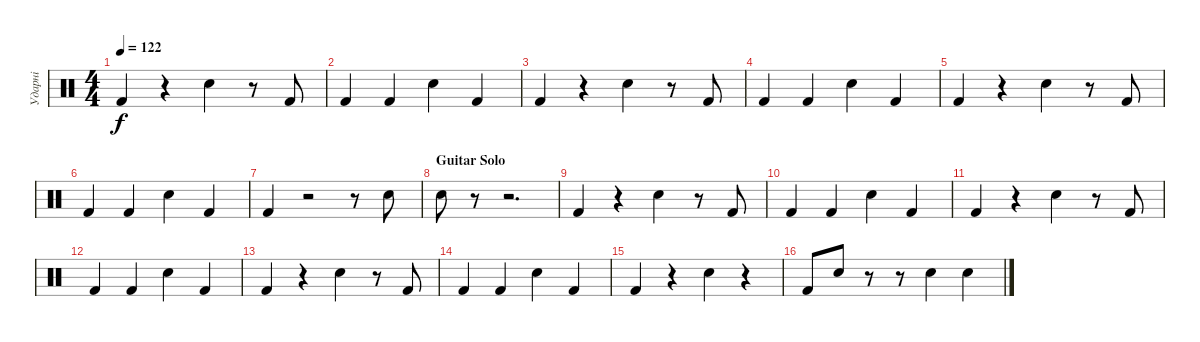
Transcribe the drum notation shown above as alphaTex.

\track ("Ударні" "Ударні") {instrument percussion}
\staff {score}
\articulation defaults
\ts (4 4)
\tempo 122
\clef neutral
\ks c "Kick (hit) 2".4{dy f}
r.4 "Snare (hit) 2".4 r.8 "Kick (hit) 2".8 |
"Kick (hit) 2".4 "Kick (hit) 2".4 "Snare (hit) 2".4 "Kick (hit) 2".4 |
"Kick (hit) 2".4 r.4 "Snare (hit) 2".4 r.8 "Kick (hit) 2".8 |
"Kick (hit) 2".4 "Kick (hit) 2".4 "Snare (hit) 2".4 "Kick (hit) 2".4 |
"Kick (hit) 2".4 r.4 "Snare (hit) 2".4 r.8 "Kick (hit) 2".8 |
"Kick (hit) 2".4 "Kick (hit) 2".4 "Snare (hit) 2".4 "Kick (hit) 2".4 |
"Kick (hit) 2".4 r.2 r.8 "Snare (hit) 2".8 |
\section ("" "Guitar Solo")
"Snare (hit) 2".8 r.8 r.2{d} |
"Kick (hit) 2".4 r.4 "Snare (hit) 2".4 r.8 "Kick (hit) 2".8 |
"Kick (hit) 2".4 "Kick (hit) 2".4 "Snare (hit) 2".4 "Kick (hit) 2".4 |
"Kick (hit) 2".4 r.4 "Snare (hit) 2".4 r.8 "Kick (hit) 2".8 |
"Kick (hit) 2".4 "Kick (hit) 2".4 "Snare (hit) 2".4 "Kick (hit) 2".4 |
"Kick (hit) 2".4 r.4 "Snare (hit) 2".4 r.8 "Kick (hit) 2".8 |
"Kick (hit) 2".4 "Kick (hit) 2".4 "Snare (hit) 2".4 "Kick (hit) 2".4 |
"Kick (hit) 2".4 r.4 "Snare (hit) 2".4 r.4 |
"Kick (hit) 2".8 "Snare (hit) 2".8 r.8 r.8 "Snare (hit) 2".4 "Snare (hit) 2".4
